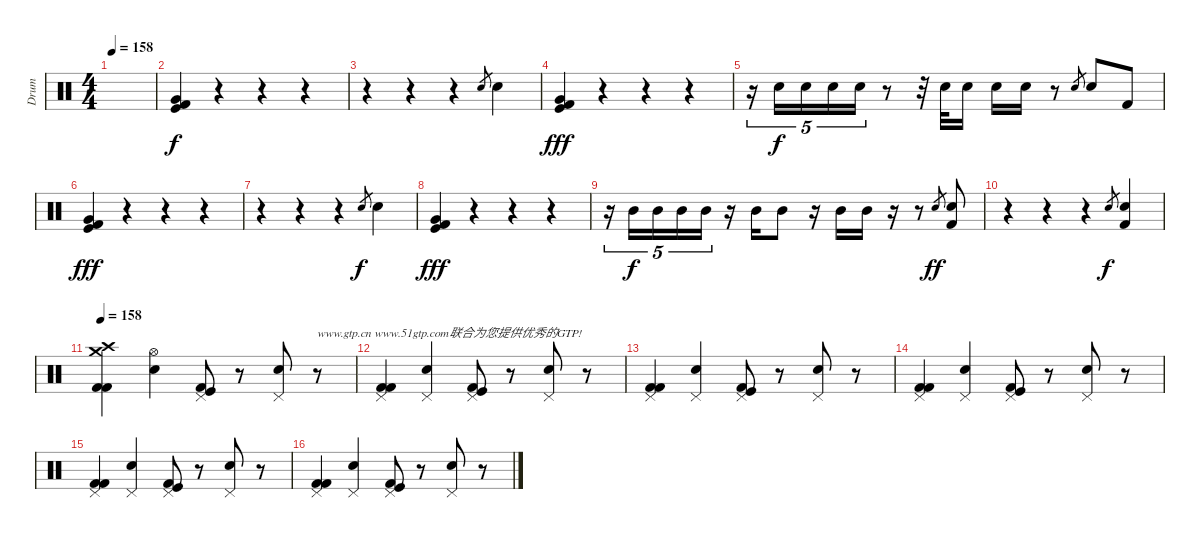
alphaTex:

\track ("Drum" "Drum") {instrument percussion}
\staff {score}
\articulation defaults
\ts (4 4)
\tempo 158
\tempo 155
\tempo 158
\clef neutral
\ks c
|
("Very Low Tom (hit)" "Kick (hit)" "Kick (hit) 2").4 r.4 r.4 r.4 |
r.4 r.4 r.4 "Electric Snare (hit)".8{gr dy f} "Electric Snare (hit)".4 |
("Very Low Tom (hit)" "Kick (hit)" "Kick (hit) 2").4{dy fff} r.4 r.4 r.4 |
r.16{tu (5 4)} "Electric Snare (hit)".16{tu (5 4) dy f} "Electric Snare (hit)".16{tu (5 4)} "Electric Snare (hit)".16{tu (5 4)} "Electric Snare (hit)".16{tu (5 4)} r.8 r.32 "Electric Snare (hit)".32 "Electric Snare (hit)".16 "Electric Snare (hit)".16 "Electric Snare (hit)".16 r.8 "Electric Snare (hit)".8{gr} "Electric Snare (hit)".8 "Kick (hit) 2".8 |
("Very Low Tom (hit)" "Kick (hit)" "Kick (hit) 2").4{dy fff} r.4 r.4 r.4 |
r.4 r.4 r.4 "Electric Snare (hit)".8{gr dy f} "Electric Snare (hit)".4 |
("Very Low Tom (hit)" "Kick (hit)" "Kick (hit) 2").4{dy fff} r.4 r.4 r.4 |
r.16{tu (5 4)} "Mid Tom (hit)".16{tu (5 4) dy f} "Mid Tom (hit)".16{tu (5 4)} "Mid Tom (hit)".16{tu (5 4)} "Mid Tom (hit)".16{tu (5 4)} r.16 "Mid Tom (hit)".16 "Mid Tom (hit)".8 r.16 "Mid Tom (hit)".16 "Mid Tom (hit)".16 r.16 r.8 "Electric Snare (hit)".8{gr dy ff} ("Kick (hit) 2" "Electric Snare (hit)").8 |
r.4 r.4 r.4 "Electric Snare (hit)".8{gr dy f} ("Electric Snare (hit)" "Kick (hit) 2").4 |
\tempo 158
("Crash high (hit)" "Kick (hit) 2" "Kick (hit) 2" "Crash medium (hit)").4 ("Hi-Hat (open)" "Electric Snare (hit)").4 ("Pedal Hi-Hat (hit)" "Kick (hit) 2" "Kick (hit)").8 r.8 ("Pedal Hi-Hat (hit)" "Electric Snare (hit)").8 r.8{txt "www.gtp.cn www.51gtp.com联合为您提供优秀的GTP!"} |
("Pedal Hi-Hat (hit)" "Kick (hit) 2" "Kick (hit) 2").4 ("Pedal Hi-Hat (hit)" "Electric Snare (hit)").4 ("Pedal Hi-Hat (hit)" "Kick (hit) 2" "Kick (hit)").8 r.8 ("Pedal Hi-Hat (hit)" "Electric Snare (hit)").8 r.8 |
("Pedal Hi-Hat (hit)" "Kick (hit) 2" "Kick (hit) 2").4 ("Pedal Hi-Hat (hit)" "Electric Snare (hit)").4 ("Pedal Hi-Hat (hit)" "Kick (hit) 2" "Kick (hit)").8 r.8 ("Pedal Hi-Hat (hit)" "Electric Snare (hit)").8 r.8 |
("Pedal Hi-Hat (hit)" "Kick (hit) 2" "Kick (hit) 2").4 ("Pedal Hi-Hat (hit)" "Electric Snare (hit)").4 ("Pedal Hi-Hat (hit)" "Kick (hit) 2" "Kick (hit)").8 r.8 ("Pedal Hi-Hat (hit)" "Electric Snare (hit)").8 r.8 |
("Pedal Hi-Hat (hit)" "Kick (hit) 2" "Kick (hit) 2").4 ("Pedal Hi-Hat (hit)" "Electric Snare (hit)").4 ("Pedal Hi-Hat (hit)" "Kick (hit) 2" "Kick (hit)").8 r.8 ("Pedal Hi-Hat (hit)" "Electric Snare (hit)").8 r.8 |
("Pedal Hi-Hat (hit)" "Kick (hit) 2" "Kick (hit) 2").4 ("Pedal Hi-Hat (hit)" "Electric Snare (hit)").4 ("Pedal Hi-Hat (hit)" "Kick (hit) 2" "Kick (hit)").8 r.8 ("Pedal Hi-Hat (hit)" "Electric Snare (hit)").8 r.8
